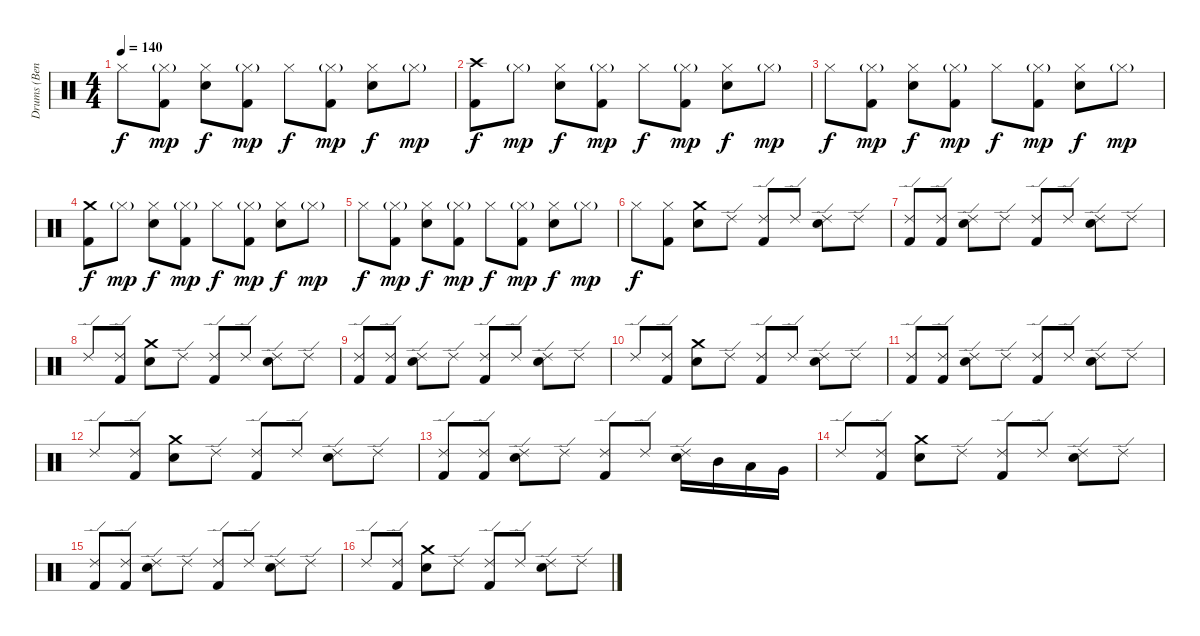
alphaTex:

\track ("Drums (Bengerg)" "Drums (Ben") {instrument percussion}
\staff {score}
\articulation defaults
\ts (4 4)
\tempo 140
\clef neutral
\ks c "Hi-Hat (closed)".8{dy f}
("Hi-Hat (closed)"{g} "Kick (hit) 2").8{dy mp} ("Hi-Hat (closed)" "Electric Snare (hit)").8{dy f} ("Hi-Hat (closed)"{g} "Kick (hit) 2").8{dy mp} "Hi-Hat (closed)".8{dy f} ("Hi-Hat (closed)"{g} "Kick (hit) 2").8{dy mp} ("Hi-Hat (closed)" "Electric Snare (hit)").8{dy f} "Hi-Hat (closed)"{g}.8{dy mp} |
("Crash high (hit)" "Kick (hit) 2").8{dy f} "Hi-Hat (closed)"{g}.8{dy mp} ("Hi-Hat (closed)" "Electric Snare (hit)").8{dy f} ("Hi-Hat (closed)"{g} "Kick (hit) 2").8{dy mp} "Hi-Hat (closed)".8{dy f} ("Hi-Hat (closed)"{g} "Kick (hit) 2").8{dy mp} ("Hi-Hat (closed)" "Electric Snare (hit)").8{dy f} "Hi-Hat (closed)"{g}.8{dy mp} |
"Hi-Hat (closed)".8{dy f} ("Hi-Hat (closed)"{g} "Kick (hit) 2").8{dy mp} ("Hi-Hat (closed)" "Electric Snare (hit)").8{dy f} ("Hi-Hat (closed)"{g} "Kick (hit) 2").8{dy mp} "Hi-Hat (closed)".8{dy f} ("Hi-Hat (closed)"{g} "Kick (hit) 2").8{dy mp} ("Hi-Hat (closed)" "Electric Snare (hit)").8{dy f} "Hi-Hat (closed)"{g}.8{dy mp} |
("Crash medium (hit)" "Kick (hit) 2").8{dy f} "Hi-Hat (closed)"{g}.8{dy mp} ("Hi-Hat (closed)" "Electric Snare (hit)").8{dy f} ("Hi-Hat (closed)"{g} "Kick (hit) 2").8{dy mp} "Hi-Hat (closed)".8{dy f} ("Hi-Hat (closed)"{g} "Kick (hit) 2").8{dy mp} ("Hi-Hat (closed)" "Electric Snare (hit)").8{dy f} "Hi-Hat (closed)"{g}.8{dy mp} |
"Hi-Hat (closed)".8{dy f} ("Hi-Hat (closed)"{g} "Kick (hit) 2").8{dy mp} ("Hi-Hat (closed)" "Electric Snare (hit)").8{dy f} ("Hi-Hat (closed)"{g} "Kick (hit) 2").8{dy mp} "Hi-Hat (closed)".8{dy f} ("Hi-Hat (closed)"{g} "Kick (hit) 2").8{dy mp} ("Hi-Hat (closed)" "Electric Snare (hit)").8{dy f} "Hi-Hat (closed)"{g}.8{dy mp} |
"Hi-Hat (closed)".8{dy f} ("Hi-Hat (closed)" "Kick (hit) 2").8 ("Crash medium (hit)" "Electric Snare (hit)").8 "Ride (edge) 2".8 ("Ride (edge) 2" "Kick (hit) 2").8 "Ride (edge) 2".8 ("Ride (edge) 2" "Electric Snare (hit)").8 "Ride (edge) 2".8 |
("Ride (edge) 2" "Kick (hit) 2").8 ("Ride (edge) 2" "Kick (hit) 2").8 ("Ride (edge) 2" "Electric Snare (hit)").8 "Ride (edge) 2".8 ("Ride (edge) 2" "Kick (hit) 2").8 "Ride (edge) 2".8 ("Ride (edge) 2" "Electric Snare (hit)").8 "Ride (edge) 2".8 |
"Ride (edge) 2".8 ("Ride (edge) 2" "Kick (hit) 2").8 ("Crash medium (hit)" "Electric Snare (hit)").8 "Ride (edge) 2".8 ("Ride (edge) 2" "Kick (hit) 2").8 "Ride (edge) 2".8 ("Ride (edge) 2" "Electric Snare (hit)").8 "Ride (edge) 2".8 |
("Ride (edge) 2" "Kick (hit) 2").8 ("Ride (edge) 2" "Kick (hit) 2").8 ("Ride (edge) 2" "Electric Snare (hit)").8 "Ride (edge) 2".8 ("Ride (edge) 2" "Kick (hit) 2").8 "Ride (edge) 2".8 ("Ride (edge) 2" "Electric Snare (hit)").8 "Ride (edge) 2".8 |
"Ride (edge) 2".8 ("Ride (edge) 2" "Kick (hit) 2").8 ("Crash medium (hit)" "Electric Snare (hit)").8 "Ride (edge) 2".8 ("Ride (edge) 2" "Kick (hit) 2").8 "Ride (edge) 2".8 ("Ride (edge) 2" "Electric Snare (hit)").8 "Ride (edge) 2".8 |
("Ride (edge) 2" "Kick (hit) 2").8 ("Ride (edge) 2" "Kick (hit) 2").8 ("Ride (edge) 2" "Electric Snare (hit)").8 "Ride (edge) 2".8 ("Ride (edge) 2" "Kick (hit) 2").8 "Ride (edge) 2".8 ("Ride (edge) 2" "Electric Snare (hit)").8 "Ride (edge) 2".8 |
"Ride (edge) 2".8 ("Ride (edge) 2" "Kick (hit) 2").8 ("Crash medium (hit)" "Electric Snare (hit)").8 "Ride (edge) 2".8 ("Ride (edge) 2" "Kick (hit) 2").8 "Ride (edge) 2".8 ("Ride (edge) 2" "Electric Snare (hit)").8 "Ride (edge) 2".8 |
("Ride (edge) 2" "Kick (hit) 2").8 ("Ride (edge) 2" "Kick (hit) 2").8 ("Ride (edge) 2" "Electric Snare (hit)").8 "Ride (edge) 2".8 ("Ride (edge) 2" "Kick (hit) 2").8 "Ride (edge) 2".8 ("Ride (edge) 2" "Electric Snare (hit)").16 "Mid Tom (hit)".16 "Low Tom (hit)".16 "Very Low Tom (hit)".16 |
"Ride (edge) 2".8 ("Ride (edge) 2" "Kick (hit) 2").8 ("Crash medium (hit)" "Electric Snare (hit)").8 "Ride (edge) 2".8 ("Ride (edge) 2" "Kick (hit) 2").8 "Ride (edge) 2".8 ("Ride (edge) 2" "Electric Snare (hit)").8 "Ride (edge) 2".8 |
("Ride (edge) 2" "Kick (hit) 2").8 ("Ride (edge) 2" "Kick (hit) 2").8 ("Ride (edge) 2" "Electric Snare (hit)").8 "Ride (edge) 2".8 ("Ride (edge) 2" "Kick (hit) 2").8 "Ride (edge) 2".8 ("Ride (edge) 2" "Electric Snare (hit)").8 "Ride (edge) 2".8 |
"Ride (edge) 2".8 ("Ride (edge) 2" "Kick (hit) 2").8 ("Crash medium (hit)" "Electric Snare (hit)").8 "Ride (edge) 2".8 ("Ride (edge) 2" "Kick (hit) 2").8 "Ride (edge) 2".8 ("Ride (edge) 2" "Electric Snare (hit)").8 "Ride (edge) 2".8
